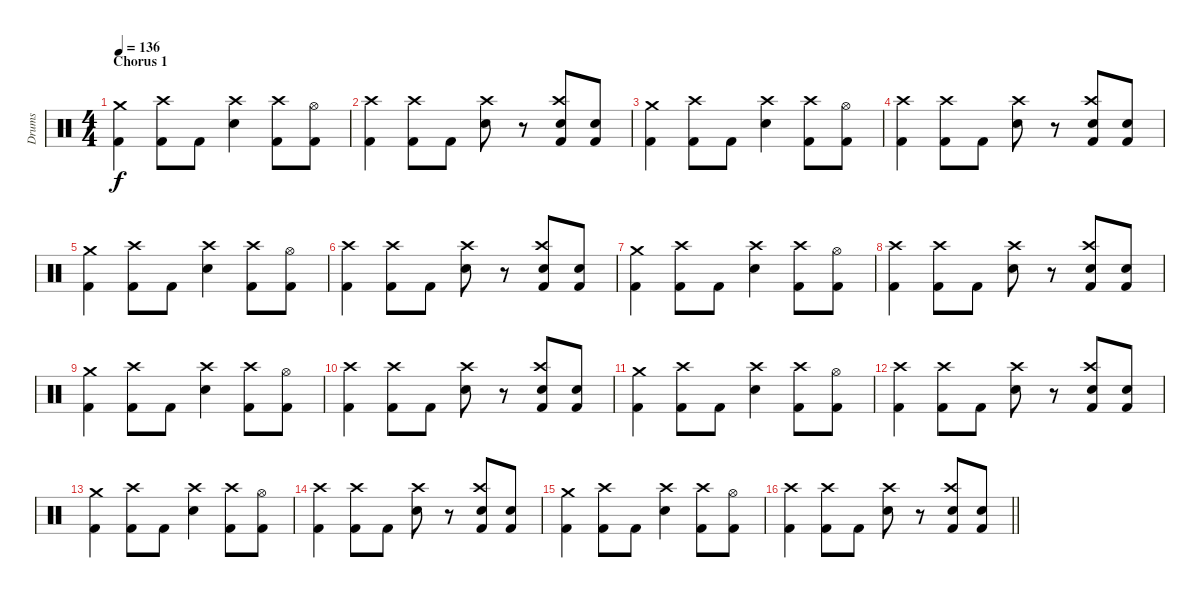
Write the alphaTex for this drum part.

\track ("Drums" "Drums") {instrument percussion}
\staff {score}
\articulation defaults
\ts (4 4)
\section ("" "Chorus 1")
\tempo 136
\clef neutral
\ks c
("Crash medium (hit)" "Kick (hit) 2").4{dy f} ("Crash high (hit)" "Kick (hit) 2").8 "Kick (hit) 2".8 ("Crash high (hit)" "Snare (hit) 2").4 ("Crash high (hit)" "Kick (hit) 2").8 ("Hi-Hat (open)" "Kick (hit) 2").8 |
("Crash high (hit)" "Kick (hit) 2").4 ("Crash high (hit)" "Kick (hit) 2").8 "Kick (hit) 2".8 ("Crash high (hit)" "Snare (hit) 2").8 r.8 ("Crash high (hit)" "Snare (hit) 2" "Kick (hit) 2").8 ("Snare (hit) 2" "Kick (hit) 2").8 |
("Crash medium (hit)" "Kick (hit) 2").4 ("Crash high (hit)" "Kick (hit) 2").8 "Kick (hit) 2".8 ("Crash high (hit)" "Snare (hit) 2").4 ("Crash high (hit)" "Kick (hit) 2").8 ("Hi-Hat (open)" "Kick (hit) 2").8 |
("Crash high (hit)" "Kick (hit) 2").4 ("Crash high (hit)" "Kick (hit) 2").8 "Kick (hit) 2".8 ("Crash high (hit)" "Snare (hit) 2").8 r.8 ("Crash high (hit)" "Snare (hit) 2" "Kick (hit) 2").8 ("Snare (hit) 2" "Kick (hit) 2").8 |
("Crash medium (hit)" "Kick (hit) 2").4 ("Crash high (hit)" "Kick (hit) 2").8 "Kick (hit) 2".8 ("Crash high (hit)" "Snare (hit) 2").4 ("Crash high (hit)" "Kick (hit) 2").8 ("Hi-Hat (open)" "Kick (hit) 2").8 |
("Crash high (hit)" "Kick (hit) 2").4 ("Crash high (hit)" "Kick (hit) 2").8 "Kick (hit) 2".8 ("Crash high (hit)" "Snare (hit) 2").8 r.8 ("Crash high (hit)" "Snare (hit) 2" "Kick (hit) 2").8 ("Snare (hit) 2" "Kick (hit) 2").8 |
("Crash medium (hit)" "Kick (hit) 2").4 ("Crash high (hit)" "Kick (hit) 2").8 "Kick (hit) 2".8 ("Crash high (hit)" "Snare (hit) 2").4 ("Crash high (hit)" "Kick (hit) 2").8 ("Hi-Hat (open)" "Kick (hit) 2").8 |
("Crash high (hit)" "Kick (hit) 2").4 ("Crash high (hit)" "Kick (hit) 2").8 "Kick (hit) 2".8 ("Crash high (hit)" "Snare (hit) 2").8 r.8 ("Crash high (hit)" "Snare (hit) 2" "Kick (hit) 2").8 ("Snare (hit) 2" "Kick (hit) 2").8 |
("Crash medium (hit)" "Kick (hit) 2").4 ("Crash high (hit)" "Kick (hit) 2").8 "Kick (hit) 2".8 ("Crash high (hit)" "Snare (hit) 2").4 ("Crash high (hit)" "Kick (hit) 2").8 ("Hi-Hat (open)" "Kick (hit) 2").8 |
("Crash high (hit)" "Kick (hit) 2").4 ("Crash high (hit)" "Kick (hit) 2").8 "Kick (hit) 2".8 ("Crash high (hit)" "Snare (hit) 2").8 r.8 ("Crash high (hit)" "Snare (hit) 2" "Kick (hit) 2").8 ("Snare (hit) 2" "Kick (hit) 2").8 |
("Crash medium (hit)" "Kick (hit) 2").4 ("Crash high (hit)" "Kick (hit) 2").8 "Kick (hit) 2".8 ("Crash high (hit)" "Snare (hit) 2").4 ("Crash high (hit)" "Kick (hit) 2").8 ("Hi-Hat (open)" "Kick (hit) 2").8 |
("Crash high (hit)" "Kick (hit) 2").4 ("Crash high (hit)" "Kick (hit) 2").8 "Kick (hit) 2".8 ("Crash high (hit)" "Snare (hit) 2").8 r.8 ("Crash high (hit)" "Snare (hit) 2" "Kick (hit) 2").8 ("Snare (hit) 2" "Kick (hit) 2").8 |
("Crash medium (hit)" "Kick (hit) 2").4 ("Crash high (hit)" "Kick (hit) 2").8 "Kick (hit) 2".8 ("Crash high (hit)" "Snare (hit) 2").4 ("Crash high (hit)" "Kick (hit) 2").8 ("Hi-Hat (open)" "Kick (hit) 2").8 |
("Crash high (hit)" "Kick (hit) 2").4 ("Crash high (hit)" "Kick (hit) 2").8 "Kick (hit) 2".8 ("Crash high (hit)" "Snare (hit) 2").8 r.8 ("Crash high (hit)" "Snare (hit) 2" "Kick (hit) 2").8 ("Snare (hit) 2" "Kick (hit) 2").8 |
("Crash medium (hit)" "Kick (hit) 2").4 ("Crash high (hit)" "Kick (hit) 2").8 "Kick (hit) 2".8 ("Crash high (hit)" "Snare (hit) 2").4 ("Crash high (hit)" "Kick (hit) 2").8 ("Hi-Hat (open)" "Kick (hit) 2").8 |
\barLineRight lightlight
("Crash high (hit)" "Kick (hit) 2").4 ("Crash high (hit)" "Kick (hit) 2").8 "Kick (hit) 2".8 ("Crash high (hit)" "Snare (hit) 2").8 r.8 ("Crash high (hit)" "Snare (hit) 2" "Kick (hit) 2").8 ("Snare (hit) 2" "Kick (hit) 2").8
